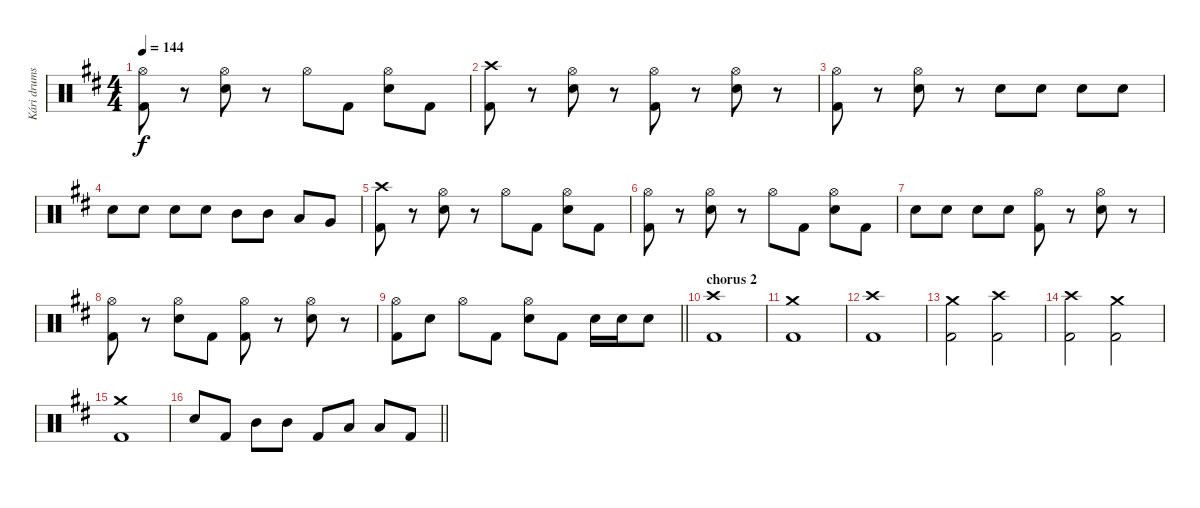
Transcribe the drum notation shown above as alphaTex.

\track ("Kári drums" "Kári drums") {instrument percussion}
\staff {score}
\articulation defaults
\ts (4 4)
\tempo 144
\clef neutral
\ks bminor
("Hi-Hat (open)" "Kick (hit) 2").8{dy f} r.8 ("Hi-Hat (open)" "Snare (hit) 2").8 r.8 "Hi-Hat (open)".8 "Kick (hit) 2".8 ("Hi-Hat (open)" "Snare (hit) 2").8 "Kick (hit) 2".8 |
("Crash high (hit)" "Kick (hit) 2").8 r.8 ("Hi-Hat (open)" "Snare (hit) 2").8 r.8 ("Hi-Hat (open)" "Kick (hit) 2").8 r.8 ("Hi-Hat (open)" "Snare (hit) 2").8 r.8 |
("Hi-Hat (open)" "Kick (hit) 2").8 r.8 ("Hi-Hat (open)" "Snare (hit) 2").8 r.8 "Snare (hit) 2".8 "Snare (hit) 2".8 "Snare (hit) 2".8 "Snare (hit) 2".8 |
"Snare (hit) 2".8 "Snare (hit) 2".8 "Snare (hit) 2".8 "Snare (hit) 2".8 "Mid Tom (hit)".8 "Mid Tom (hit)".8 "Low Tom (hit)".8 "Very Low Tom (hit)".8 |
("Crash high (hit)" "Kick (hit) 2").8 r.8 ("Hi-Hat (open)" "Snare (hit) 2").8 r.8 "Hi-Hat (open)".8 "Kick (hit) 2".8 ("Hi-Hat (open)" "Snare (hit) 2").8 "Kick (hit) 2".8 |
("Hi-Hat (open)" "Kick (hit) 2").8 r.8 ("Hi-Hat (open)" "Snare (hit) 2").8 r.8 "Hi-Hat (open)".8 "Kick (hit) 2".8 ("Hi-Hat (open)" "Snare (hit) 2").8 "Kick (hit) 2".8 |
"Snare (hit) 2".8 "Snare (hit) 2".8 "Snare (hit) 2".8 "Snare (hit) 2".8 ("Hi-Hat (open)" "Kick (hit) 2").8 r.8 ("Hi-Hat (open)" "Snare (hit) 2").8 r.8 |
("Hi-Hat (open)" "Kick (hit) 2").8 r.8 ("Hi-Hat (open)" "Snare (hit) 2").8 "Kick (hit) 2".8 ("Hi-Hat (open)" "Kick (hit) 2").8 r.8 ("Hi-Hat (open)" "Snare (hit) 2").8 r.8 |
\barLineRight lightlight
("Hi-Hat (open)" "Kick (hit) 2").8 "Snare (hit) 2".8 "Hi-Hat (open)".8 "Kick (hit) 2".8 ("Hi-Hat (open)" "Snare (hit) 2").8 "Kick (hit) 2".8 "Snare (hit) 2".16 "Snare (hit) 2".16 "Snare (hit) 2".8 |
\section ("" "chorus 2")
("Crash high (hit)" "Kick (hit) 2").1 |
("Crash medium (hit)" "Kick (hit) 2").1 |
("Crash high (hit)" "Kick (hit) 2").1 |
("Crash medium (hit)" "Kick (hit) 2").2 ("Crash high (hit)" "Kick (hit) 2").2 |
("Crash high (hit)" "Kick (hit) 2").2 ("Crash medium (hit)" "Kick (hit) 2").2 |
("Crash medium (hit)" "Kick (hit) 2").1 |
\barLineRight lightlight "Snare (hit) 2".8 "Kick (hit) 2".8 "Mid Tom (hit)".8 "Mid Tom (hit)".8 "Kick (hit) 2".8 "Low Tom (hit)".8 "Low Tom (hit)".8 "Kick (hit) 2".8
